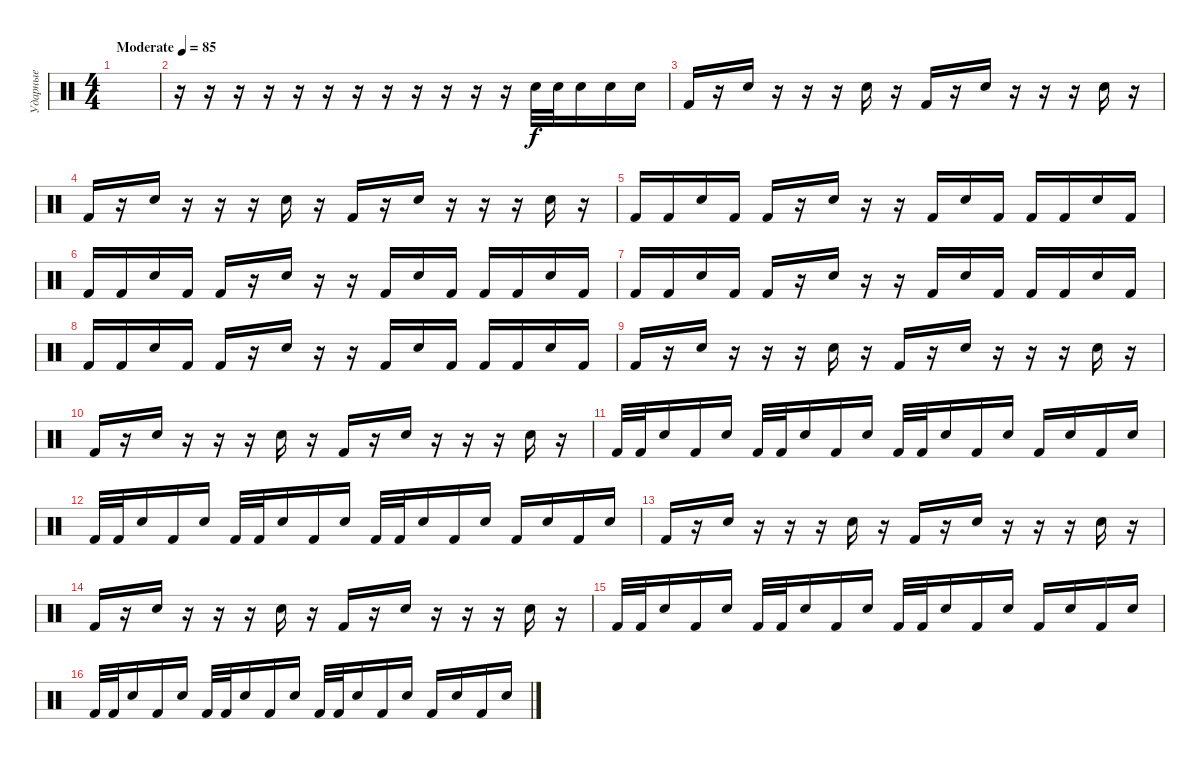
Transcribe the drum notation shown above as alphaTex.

\track ("Ударные" "Ударные") {instrument percussion}
\staff {score}
\articulation defaults
\ts (4 4)
\tempo (85 "Moderate")
\clef neutral
\ks c
|
r.16 r.16 r.16 r.16 r.16 r.16 r.16 r.16 r.16 r.16 r.16 r.16 "Electric Snare (hit)".32 "Electric Snare (hit)".32 "Electric Snare (hit)".16 "Electric Snare (hit)".16 "Electric Snare (hit)".16 |
"Kick (hit) 2".16 r.16 "Electric Snare (hit)".16 r.16 r.16 r.16 "Electric Snare (hit)".16 r.16 "Kick (hit) 2".16 r.16 "Electric Snare (hit)".16 r.16 r.16 r.16 "Electric Snare (hit)".16 r.16 |
"Kick (hit) 2".16 r.16 "Electric Snare (hit)".16 r.16 r.16 r.16 "Electric Snare (hit)".16 r.16 "Kick (hit) 2".16 r.16 "Electric Snare (hit)".16 r.16 r.16 r.16 "Electric Snare (hit)".16 r.16 |
"Kick (hit) 2".16 "Kick (hit) 2".16 "Electric Snare (hit)".16 "Kick (hit) 2".16 "Kick (hit) 2".16 r.16 "Electric Snare (hit)".16 r.16 r.16 "Kick (hit) 2".16 "Electric Snare (hit)".16 "Kick (hit) 2".16 "Kick (hit) 2".16 "Kick (hit) 2".16 "Electric Snare (hit)".16 "Kick (hit) 2".16 |
"Kick (hit) 2".16 "Kick (hit) 2".16 "Electric Snare (hit)".16 "Kick (hit) 2".16 "Kick (hit) 2".16 r.16 "Electric Snare (hit)".16 r.16 r.16 "Kick (hit) 2".16 "Electric Snare (hit)".16 "Kick (hit) 2".16 "Kick (hit) 2".16 "Kick (hit) 2".16 "Electric Snare (hit)".16 "Kick (hit) 2".16 |
"Kick (hit) 2".16 "Kick (hit) 2".16 "Electric Snare (hit)".16 "Kick (hit) 2".16 "Kick (hit) 2".16 r.16 "Electric Snare (hit)".16 r.16 r.16 "Kick (hit) 2".16 "Electric Snare (hit)".16 "Kick (hit) 2".16 "Kick (hit) 2".16 "Kick (hit) 2".16 "Electric Snare (hit)".16 "Kick (hit) 2".16 |
"Kick (hit) 2".16 "Kick (hit) 2".16 "Electric Snare (hit)".16 "Kick (hit) 2".16 "Kick (hit) 2".16 r.16 "Electric Snare (hit)".16 r.16 r.16 "Kick (hit) 2".16 "Electric Snare (hit)".16 "Kick (hit) 2".16 "Kick (hit) 2".16 "Kick (hit) 2".16 "Electric Snare (hit)".16 "Kick (hit) 2".16 |
"Kick (hit) 2".16 r.16 "Electric Snare (hit)".16 r.16 r.16 r.16 "Electric Snare (hit)".16 r.16 "Kick (hit) 2".16 r.16 "Electric Snare (hit)".16 r.16 r.16 r.16 "Electric Snare (hit)".16 r.16 |
"Kick (hit) 2".16 r.16 "Electric Snare (hit)".16 r.16 r.16 r.16 "Electric Snare (hit)".16 r.16 "Kick (hit) 2".16 r.16 "Electric Snare (hit)".16 r.16 r.16 r.16 "Electric Snare (hit)".16 r.16 |
"Kick (hit) 2".32 "Kick (hit) 2".32 "Electric Snare (hit)".16 "Kick (hit) 2".16 "Electric Snare (hit)".16 "Kick (hit) 2".32 "Kick (hit) 2".32 "Electric Snare (hit)".16 "Kick (hit) 2".16 "Electric Snare (hit)".16 "Kick (hit) 2".32 "Kick (hit) 2".32 "Electric Snare (hit)".16 "Kick (hit) 2".16 "Electric Snare (hit)".16 "Kick (hit) 2".16 "Electric Snare (hit)".16 "Kick (hit) 2".16 "Electric Snare (hit)".16 |
"Kick (hit) 2".32 "Kick (hit) 2".32 "Electric Snare (hit)".16 "Kick (hit) 2".16 "Electric Snare (hit)".16 "Kick (hit) 2".32 "Kick (hit) 2".32 "Electric Snare (hit)".16 "Kick (hit) 2".16 "Electric Snare (hit)".16 "Kick (hit) 2".32 "Kick (hit) 2".32 "Electric Snare (hit)".16 "Kick (hit) 2".16 "Electric Snare (hit)".16 "Kick (hit) 2".16 "Electric Snare (hit)".16 "Kick (hit) 2".16 "Electric Snare (hit)".16 |
"Kick (hit) 2".16 r.16 "Electric Snare (hit)".16 r.16 r.16 r.16 "Electric Snare (hit)".16 r.16 "Kick (hit) 2".16 r.16 "Electric Snare (hit)".16 r.16 r.16 r.16 "Electric Snare (hit)".16 r.16 |
"Kick (hit) 2".16 r.16 "Electric Snare (hit)".16 r.16 r.16 r.16 "Electric Snare (hit)".16 r.16 "Kick (hit) 2".16 r.16 "Electric Snare (hit)".16 r.16 r.16 r.16 "Electric Snare (hit)".16 r.16 |
"Kick (hit) 2".32 "Kick (hit) 2".32 "Electric Snare (hit)".16 "Kick (hit) 2".16 "Electric Snare (hit)".16 "Kick (hit) 2".32 "Kick (hit) 2".32 "Electric Snare (hit)".16 "Kick (hit) 2".16 "Electric Snare (hit)".16 "Kick (hit) 2".32 "Kick (hit) 2".32 "Electric Snare (hit)".16 "Kick (hit) 2".16 "Electric Snare (hit)".16 "Kick (hit) 2".16 "Electric Snare (hit)".16 "Kick (hit) 2".16 "Electric Snare (hit)".16 |
"Kick (hit) 2".32 "Kick (hit) 2".32 "Electric Snare (hit)".16 "Kick (hit) 2".16 "Electric Snare (hit)".16 "Kick (hit) 2".32 "Kick (hit) 2".32 "Electric Snare (hit)".16 "Kick (hit) 2".16 "Electric Snare (hit)".16 "Kick (hit) 2".32 "Kick (hit) 2".32 "Electric Snare (hit)".16 "Kick (hit) 2".16 "Electric Snare (hit)".16 "Kick (hit) 2".16 "Electric Snare (hit)".16 "Kick (hit) 2".16 "Electric Snare (hit)".16
